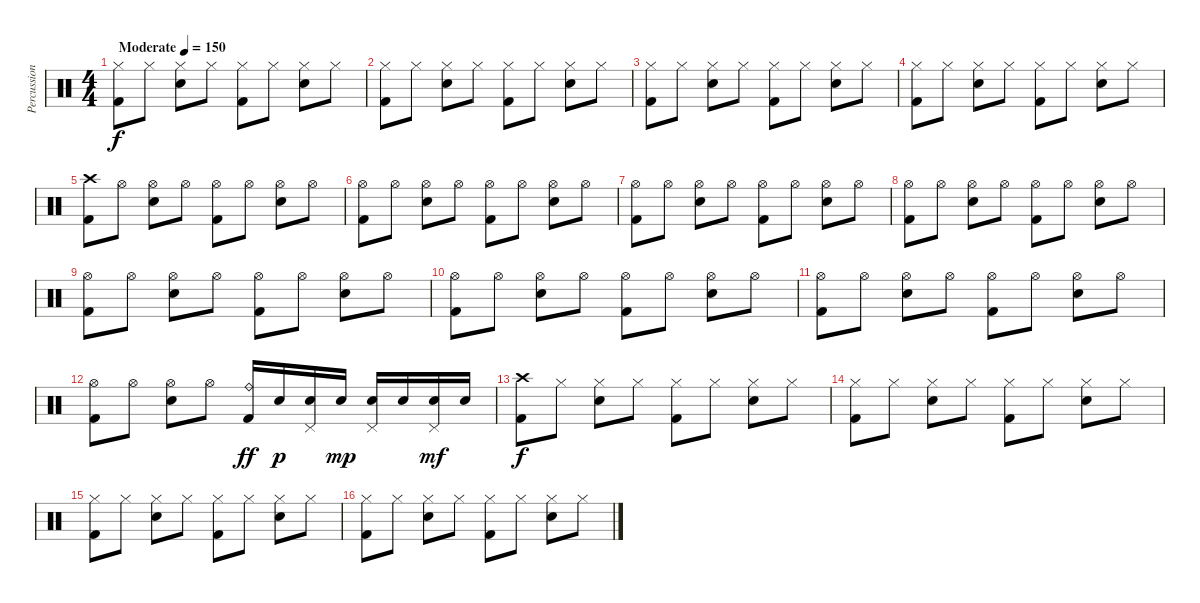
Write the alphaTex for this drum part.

\track ("Percussion" "Percussion") {instrument percussion}
\staff {score}
\articulation defaults
\ts (4 4)
\tempo (150 "Moderate")
\clef neutral
\ks c
("Hi-Hat (closed)" "Kick (hit) 2").8{dy f} "Hi-Hat (closed)".8 ("Hi-Hat (closed)" "Electric Snare (hit)").8 "Hi-Hat (closed)".8 ("Hi-Hat (closed)" "Kick (hit) 2").8 "Hi-Hat (closed)".8 ("Hi-Hat (closed)" "Electric Snare (hit)").8 "Hi-Hat (closed)".8 |
("Hi-Hat (closed)" "Kick (hit) 2").8 "Hi-Hat (closed)".8 ("Hi-Hat (closed)" "Electric Snare (hit)").8 "Hi-Hat (closed)".8 ("Hi-Hat (closed)" "Kick (hit) 2").8 "Hi-Hat (closed)".8 ("Hi-Hat (closed)" "Electric Snare (hit)").8 "Hi-Hat (closed)".8 |
("Hi-Hat (closed)" "Kick (hit) 2").8 "Hi-Hat (closed)".8 ("Hi-Hat (closed)" "Electric Snare (hit)").8 "Hi-Hat (closed)".8 ("Hi-Hat (closed)" "Kick (hit) 2").8 "Hi-Hat (closed)".8 ("Hi-Hat (closed)" "Electric Snare (hit)").8 "Hi-Hat (closed)".8 |
("Hi-Hat (closed)" "Kick (hit) 2").8 "Hi-Hat (closed)".8 ("Hi-Hat (closed)" "Electric Snare (hit)").8 "Hi-Hat (closed)".8 ("Hi-Hat (closed)" "Kick (hit) 2").8 "Hi-Hat (closed)".8 ("Hi-Hat (closed)" "Electric Snare (hit)").8 "Hi-Hat (closed)".8 |
("Crash high (hit)" "Kick (hit) 2").8 "Hi-Hat (open)".8 ("Hi-Hat (open)" "Electric Snare (hit)").8 "Hi-Hat (open)".8 ("Hi-Hat (open)" "Kick (hit) 2").8 "Hi-Hat (open)".8 ("Hi-Hat (open)" "Electric Snare (hit)").8 "Hi-Hat (open)".8 |
("Hi-Hat (open)" "Kick (hit) 2").8 "Hi-Hat (open)".8 ("Hi-Hat (open)" "Electric Snare (hit)").8 "Hi-Hat (open)".8 ("Hi-Hat (open)" "Kick (hit) 2").8 "Hi-Hat (open)".8 ("Hi-Hat (open)" "Electric Snare (hit)").8 "Hi-Hat (open)".8 |
("Hi-Hat (open)" "Kick (hit) 2").8 "Hi-Hat (open)".8 ("Hi-Hat (open)" "Electric Snare (hit)").8 "Hi-Hat (open)".8 ("Hi-Hat (open)" "Kick (hit) 2").8 "Hi-Hat (open)".8 ("Hi-Hat (open)" "Electric Snare (hit)").8 "Hi-Hat (open)".8 |
("Hi-Hat (open)" "Kick (hit) 2").8 "Hi-Hat (open)".8 ("Hi-Hat (open)" "Electric Snare (hit)").8 "Hi-Hat (open)".8 ("Hi-Hat (open)" "Kick (hit) 2").8 "Hi-Hat (open)".8 ("Hi-Hat (open)" "Electric Snare (hit)").8 "Hi-Hat (open)".8 |
("Hi-Hat (open)" "Kick (hit) 2").8 "Hi-Hat (open)".8 ("Hi-Hat (open)" "Electric Snare (hit)").8 "Hi-Hat (open)".8 ("Hi-Hat (open)" "Kick (hit) 2").8 "Hi-Hat (open)".8 ("Hi-Hat (open)" "Electric Snare (hit)").8 "Hi-Hat (open)".8 |
("Hi-Hat (open)" "Kick (hit) 2").8 "Hi-Hat (open)".8 ("Hi-Hat (open)" "Electric Snare (hit)").8 "Hi-Hat (open)".8 ("Hi-Hat (open)" "Kick (hit) 2").8 "Hi-Hat (open)".8 ("Hi-Hat (open)" "Electric Snare (hit)").8 "Hi-Hat (open)".8 |
("Hi-Hat (open)" "Kick (hit) 2").8 "Hi-Hat (open)".8 ("Hi-Hat (open)" "Electric Snare (hit)").8 "Hi-Hat (open)".8 ("Hi-Hat (open)" "Kick (hit) 2").8 "Hi-Hat (open)".8 ("Hi-Hat (open)" "Electric Snare (hit)").8 "Hi-Hat (open)".8 |
("Hi-Hat (open)" "Kick (hit) 2").8 "Hi-Hat (open)".8 ("Hi-Hat (open)" "Electric Snare (hit)").8 "Hi-Hat (open)".8 ("Ride (bell)" "Kick (hit) 2").16{dy ff} "Electric Snare (hit)".16{dy p} ("Electric Snare (hit)" "Pedal Hi-Hat (hit)").16 "Electric Snare (hit)".16{dy mp} ("Electric Snare (hit)" "Pedal Hi-Hat (hit)").16 "Electric Snare (hit)".16 ("Electric Snare (hit)" "Pedal Hi-Hat (hit)").16{dy mf} "Electric Snare (hit)".16 |
("Crash high (hit)" "Kick (hit) 2").8{dy f} "Hi-Hat (closed)".8 ("Hi-Hat (closed)" "Electric Snare (hit)").8 "Hi-Hat (closed)".8 ("Hi-Hat (closed)" "Kick (hit) 2").8 "Hi-Hat (closed)".8 ("Hi-Hat (closed)" "Electric Snare (hit)").8 "Hi-Hat (closed)".8 |
("Hi-Hat (closed)" "Kick (hit) 2").8 "Hi-Hat (closed)".8 ("Hi-Hat (closed)" "Electric Snare (hit)").8 "Hi-Hat (closed)".8 ("Hi-Hat (closed)" "Kick (hit) 2").8 "Hi-Hat (closed)".8 ("Hi-Hat (closed)" "Electric Snare (hit)").8 "Hi-Hat (closed)".8 |
("Hi-Hat (closed)" "Kick (hit) 2").8 "Hi-Hat (closed)".8 ("Hi-Hat (closed)" "Electric Snare (hit)").8 "Hi-Hat (closed)".8 ("Hi-Hat (closed)" "Kick (hit) 2").8 "Hi-Hat (closed)".8 ("Hi-Hat (closed)" "Electric Snare (hit)").8 "Hi-Hat (closed)".8 |
("Hi-Hat (closed)" "Kick (hit) 2").8 "Hi-Hat (closed)".8 ("Hi-Hat (closed)" "Electric Snare (hit)").8 "Hi-Hat (closed)".8 ("Hi-Hat (closed)" "Kick (hit) 2").8 "Hi-Hat (closed)".8 ("Hi-Hat (closed)" "Electric Snare (hit)").8 "Hi-Hat (closed)".8
